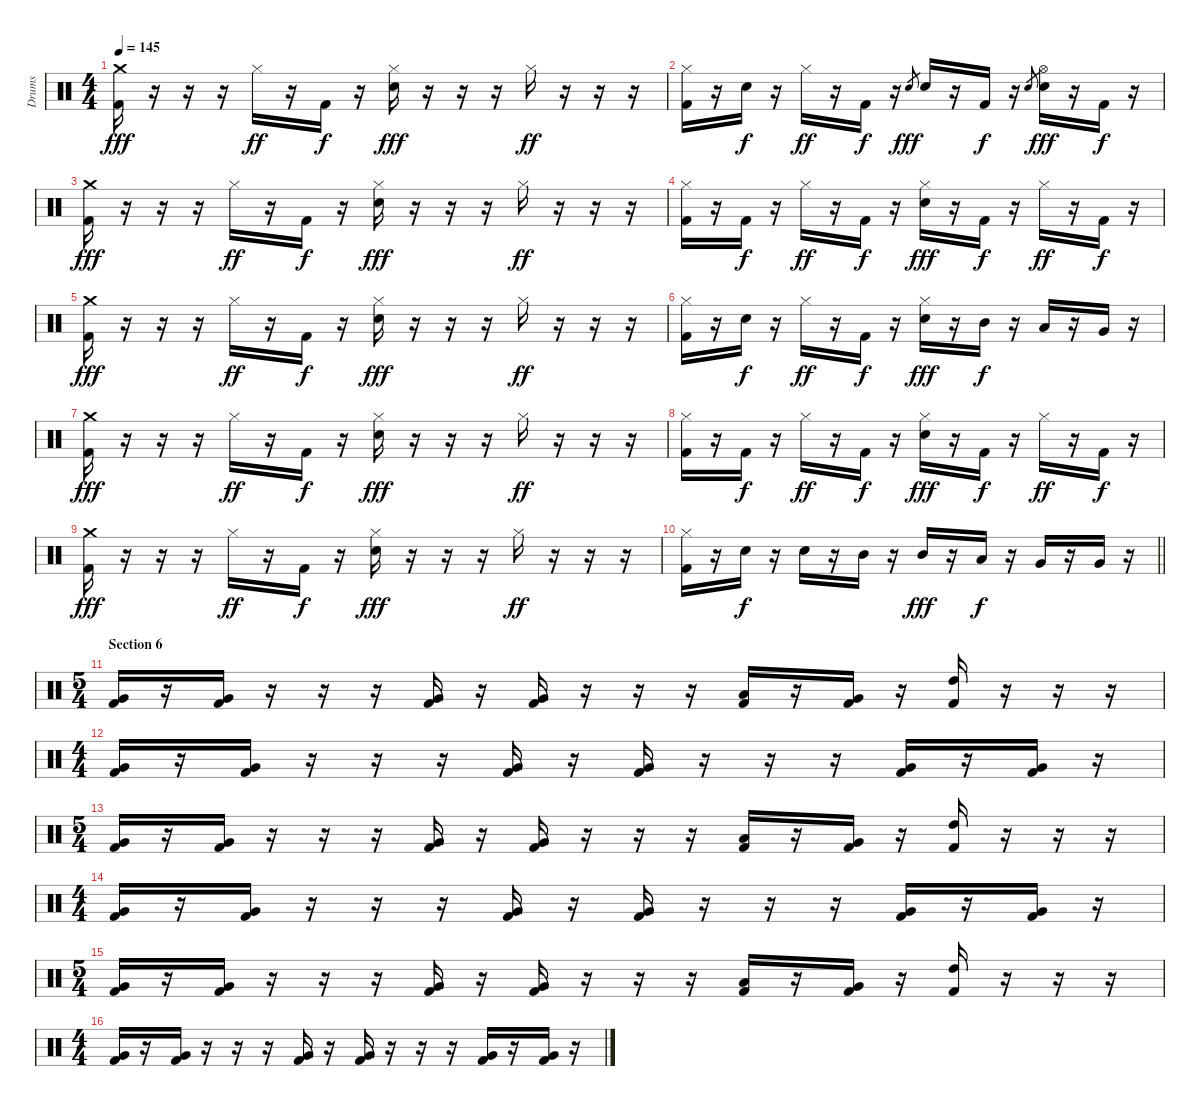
\track ("Drums" "Drums") {instrument percussion}
\staff {score}
\articulation defaults
\ts (4 4)
\tempo 145
\clef neutral
\ks c
("Crash medium (hit)" "Kick (hit) 2").16{dy fff} r.16 r.16 r.16 "Hi-Hat (closed)".16{dy ff} r.16 "Kick (hit) 2".16{dy f} r.16 ("Hi-Hat (closed)" "Electric Snare (hit)").16{dy fff} r.16 r.16 r.16 "Hi-Hat (closed)".16{dy ff} r.16 r.16 r.16 |
("Hi-Hat (closed)" "Kick (hit) 2").16 r.16 "Electric Snare (hit)".16{dy f} r.16 "Hi-Hat (closed)".16{dy ff} r.16 "Kick (hit) 2".16{dy f} r.16 "Electric Snare (hit)".8{gr dy fff} "Electric Snare (hit)".16 r.16 "Kick (hit) 2".16{dy f} r.16 "Electric Snare (hit)".8{gr} ("Hi-Hat (open)" "Electric Snare (hit)").16{dy fff} r.16 "Kick (hit) 2".16{dy f} r.16 |
("Crash medium (hit)" "Kick (hit) 2").16{dy fff} r.16 r.16 r.16 "Hi-Hat (closed)".16{dy ff} r.16 "Kick (hit) 2".16{dy f} r.16 ("Hi-Hat (closed)" "Electric Snare (hit)").16{dy fff} r.16 r.16 r.16 "Hi-Hat (closed)".16{dy ff} r.16 r.16 r.16 |
("Hi-Hat (closed)" "Kick (hit) 2").16 r.16 "Kick (hit) 2".16{dy f} r.16 "Hi-Hat (closed)".16{dy ff} r.16 "Kick (hit) 2".16{dy f} r.16 ("Hi-Hat (closed)" "Electric Snare (hit)").16{dy fff} r.16 "Kick (hit) 2".16{dy f} r.16 "Hi-Hat (closed)".16{dy ff} r.16 "Kick (hit) 2".16{dy f} r.16 |
("Crash medium (hit)" "Kick (hit) 2").16{dy fff} r.16 r.16 r.16 "Hi-Hat (closed)".16{dy ff} r.16 "Kick (hit) 2".16{dy f} r.16 ("Hi-Hat (closed)" "Electric Snare (hit)").16{dy fff} r.16 r.16 r.16 "Hi-Hat (closed)".16{dy ff} r.16 r.16 r.16 |
("Hi-Hat (closed)" "Kick (hit) 2").16 r.16 "Electric Snare (hit)".16{dy f} r.16 "Hi-Hat (closed)".16{dy ff} r.16 "Kick (hit) 2".16{dy f} r.16 ("Hi-Hat (closed)" "Electric Snare (hit)").16{dy fff} r.16 "Mid Tom (hit)".16{dy f} r.16 "Low Tom (hit)".16 r.16 "Very Low Tom (hit)".16 r.16 |
("Crash medium (hit)" "Kick (hit) 2").16{dy fff} r.16 r.16 r.16 "Hi-Hat (closed)".16{dy ff} r.16 "Kick (hit) 2".16{dy f} r.16 ("Hi-Hat (closed)" "Electric Snare (hit)").16{dy fff} r.16 r.16 r.16 "Hi-Hat (closed)".16{dy ff} r.16 r.16 r.16 |
("Hi-Hat (closed)" "Kick (hit) 2").16 r.16 "Kick (hit) 2".16{dy f} r.16 "Hi-Hat (closed)".16{dy ff} r.16 "Kick (hit) 2".16{dy f} r.16 ("Hi-Hat (closed)" "Electric Snare (hit)").16{dy fff} r.16 "Kick (hit) 2".16{dy f} r.16 "Hi-Hat (closed)".16{dy ff} r.16 "Kick (hit) 2".16{dy f} r.16 |
("Crash medium (hit)" "Kick (hit) 2").16{dy fff} r.16 r.16 r.16 "Hi-Hat (closed)".16{dy ff} r.16 "Kick (hit) 2".16{dy f} r.16 ("Hi-Hat (closed)" "Electric Snare (hit)").16{dy fff} r.16 r.16 r.16 "Hi-Hat (closed)".16{dy ff} r.16 r.16 r.16 |
\barLineRight lightlight
("Hi-Hat (closed)" "Kick (hit) 2").16 r.16 "Electric Snare (hit)".16{dy f} r.16 "Electric Snare (hit)".16 r.16 "Mid Tom (hit)".16 r.16 "Mid Tom (hit)".16{dy fff} r.16 "Low Tom (hit)".16{dy f} r.16 "Very Low Tom (hit)".16 r.16 "Very Low Tom (hit)".16 r.16 |
\ts (5 4)
\section ("" "Section 6")
("Very Low Tom (hit)" "Kick (hit) 2").16 r.16 ("Very Low Tom (hit)" "Kick (hit) 2").16 r.16 r.16 r.16 ("Very Low Tom (hit)" "Kick (hit) 2").16 r.16 ("Very Low Tom (hit)" "Kick (hit) 2").16 r.16 r.16 r.16 ("Low Tom (hit)" "Kick (hit) 2").16 r.16 ("Very Low Tom (hit)" "Kick (hit) 2").16 r.16 ("High Tom (hit)" "Kick (hit) 2").16 r.16 r.16 r.16 |
\ts (4 4)
("Very Low Tom (hit)" "Kick (hit) 2").16 r.16 ("Very Low Tom (hit)" "Kick (hit) 2").16 r.16 r.16 r.16 ("Very Low Tom (hit)" "Kick (hit) 2").16 r.16 ("Very Low Tom (hit)" "Kick (hit) 2").16 r.16 r.16 r.16 ("Very Low Tom (hit)" "Kick (hit) 2").16 r.16 ("Very Low Tom (hit)" "Kick (hit) 2").16 r.16 |
\ts (5 4)
("Very Low Tom (hit)" "Kick (hit) 2").16 r.16 ("Very Low Tom (hit)" "Kick (hit) 2").16 r.16 r.16 r.16 ("Very Low Tom (hit)" "Kick (hit) 2").16 r.16 ("Very Low Tom (hit)" "Kick (hit) 2").16 r.16 r.16 r.16 ("Low Tom (hit)" "Kick (hit) 2").16 r.16 ("Very Low Tom (hit)" "Kick (hit) 2").16 r.16 ("High Tom (hit)" "Kick (hit) 2").16 r.16 r.16 r.16 |
\ts (4 4)
("Very Low Tom (hit)" "Kick (hit) 2").16 r.16 ("Very Low Tom (hit)" "Kick (hit) 2").16 r.16 r.16 r.16 ("Very Low Tom (hit)" "Kick (hit) 2").16 r.16 ("Very Low Tom (hit)" "Kick (hit) 2").16 r.16 r.16 r.16 ("Very Low Tom (hit)" "Kick (hit) 2").16 r.16 ("Very Low Tom (hit)" "Kick (hit) 2").16 r.16 |
\ts (5 4)
("Very Low Tom (hit)" "Kick (hit) 2").16 r.16 ("Very Low Tom (hit)" "Kick (hit) 2").16 r.16 r.16 r.16 ("Very Low Tom (hit)" "Kick (hit) 2").16 r.16 ("Very Low Tom (hit)" "Kick (hit) 2").16 r.16 r.16 r.16 ("Low Tom (hit)" "Kick (hit) 2").16 r.16 ("Very Low Tom (hit)" "Kick (hit) 2").16 r.16 ("High Tom (hit)" "Kick (hit) 2").16 r.16 r.16 r.16 |
\ts (4 4)
("Very Low Tom (hit)" "Kick (hit) 2").16 r.16 ("Very Low Tom (hit)" "Kick (hit) 2").16 r.16 r.16 r.16 ("Very Low Tom (hit)" "Kick (hit) 2").16 r.16 ("Very Low Tom (hit)" "Kick (hit) 2").16 r.16 r.16 r.16 ("Very Low Tom (hit)" "Kick (hit) 2").16 r.16 ("Very Low Tom (hit)" "Kick (hit) 2").16 r.16
